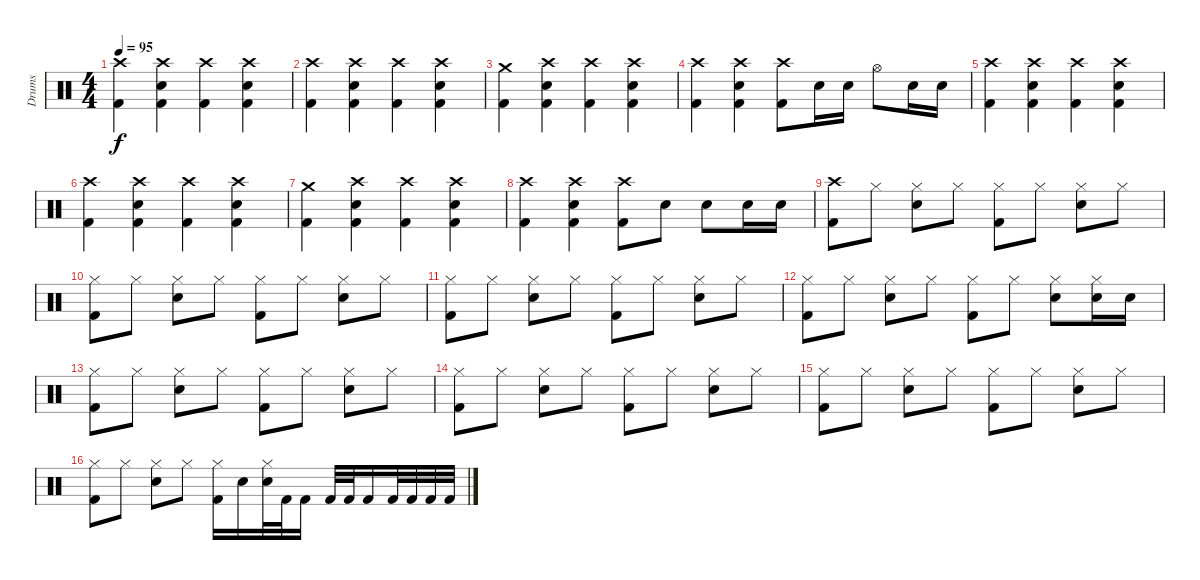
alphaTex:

\track ("Drums" "Drums") {instrument percussion}
\staff {score}
\articulation defaults
\ts (4 4)
\tempo 95
\clef neutral
\ks c
("Crash high (hit)" "Kick (hit) 2").4{dy f} ("Crash high (hit)" "Snare (hit) 2" "Kick (hit) 2").4 ("Crash high (hit)" "Kick (hit) 2").4 ("Crash high (hit)" "Snare (hit) 2" "Kick (hit) 2").4 |
("Crash high (hit)" "Kick (hit) 2").4 ("Crash high (hit)" "Snare (hit) 2" "Kick (hit) 2").4 ("Crash high (hit)" "Kick (hit) 2").4 ("Crash high (hit)" "Snare (hit) 2" "Kick (hit) 2").4 |
("Crash medium (hit)" "Kick (hit) 2").4 ("Crash high (hit)" "Snare (hit) 2" "Kick (hit) 2").4 ("Crash high (hit)" "Kick (hit) 2").4 ("Crash high (hit)" "Snare (hit) 2" "Kick (hit) 2").4 |
("Crash high (hit)" "Kick (hit) 2").4 ("Crash high (hit)" "Snare (hit) 2" "Kick (hit) 2").4 ("Crash high (hit)" "Kick (hit) 2").8 "Snare (hit) 2".16 "Snare (hit) 2".16 "Hi-Hat (open)".8 "Snare (hit) 2".16 "Snare (hit) 2".16 |
("Crash high (hit)" "Kick (hit) 2").4 ("Crash high (hit)" "Snare (hit) 2" "Kick (hit) 2").4 ("Crash high (hit)" "Kick (hit) 2").4 ("Crash high (hit)" "Snare (hit) 2" "Kick (hit) 2").4 |
("Crash high (hit)" "Kick (hit) 2").4 ("Crash high (hit)" "Snare (hit) 2" "Kick (hit) 2").4 ("Crash high (hit)" "Kick (hit) 2").4 ("Crash high (hit)" "Snare (hit) 2" "Kick (hit) 2").4 |
("Crash medium (hit)" "Kick (hit) 2").4 ("Crash high (hit)" "Snare (hit) 2" "Kick (hit) 2").4 ("Crash high (hit)" "Kick (hit) 2").4 ("Crash high (hit)" "Snare (hit) 2" "Kick (hit) 2").4 |
("Crash high (hit)" "Kick (hit) 2").4 ("Crash high (hit)" "Snare (hit) 2" "Kick (hit) 2").4 ("Crash high (hit)" "Kick (hit) 2").8 "Snare (hit) 2".8 "Snare (hit) 2".8 "Snare (hit) 2".16 "Snare (hit) 2".16 |
("Crash high (hit)" "Kick (hit) 2").8 "Hi-Hat (closed)".8 ("Hi-Hat (closed)" "Snare (hit) 2").8 "Hi-Hat (closed)".8 ("Hi-Hat (closed)" "Kick (hit) 2").8 "Hi-Hat (closed)".8 ("Hi-Hat (closed)" "Snare (hit) 2").8 "Hi-Hat (closed)".8 |
("Hi-Hat (closed)" "Kick (hit) 2").8 "Hi-Hat (closed)".8 ("Hi-Hat (closed)" "Snare (hit) 2").8 "Hi-Hat (closed)".8 ("Hi-Hat (closed)" "Kick (hit) 2").8 "Hi-Hat (closed)".8 ("Hi-Hat (closed)" "Snare (hit) 2").8 "Hi-Hat (closed)".8 |
("Hi-Hat (closed)" "Kick (hit) 2").8 "Hi-Hat (closed)".8 ("Hi-Hat (closed)" "Snare (hit) 2").8 "Hi-Hat (closed)".8 ("Hi-Hat (closed)" "Kick (hit) 2").8 "Hi-Hat (closed)".8 ("Hi-Hat (closed)" "Snare (hit) 2").8 "Hi-Hat (closed)".8 |
("Hi-Hat (closed)" "Kick (hit) 2").8 "Hi-Hat (closed)".8 ("Hi-Hat (closed)" "Snare (hit) 2").8 "Hi-Hat (closed)".8 ("Hi-Hat (closed)" "Kick (hit) 2").8 "Hi-Hat (closed)".8 ("Hi-Hat (closed)" "Snare (hit) 2").8 ("Hi-Hat (closed)" "Snare (hit) 2").16 "Snare (hit) 2".16 |
("Hi-Hat (closed)" "Kick (hit) 2").8 "Hi-Hat (closed)".8 ("Hi-Hat (closed)" "Snare (hit) 2").8 "Hi-Hat (closed)".8 ("Hi-Hat (closed)" "Kick (hit) 2").8 "Hi-Hat (closed)".8 ("Hi-Hat (closed)" "Snare (hit) 2").8 "Hi-Hat (closed)".8 |
("Hi-Hat (closed)" "Kick (hit) 2").8 "Hi-Hat (closed)".8 ("Hi-Hat (closed)" "Snare (hit) 2").8 "Hi-Hat (closed)".8 ("Hi-Hat (closed)" "Kick (hit) 2").8 "Hi-Hat (closed)".8 ("Hi-Hat (closed)" "Snare (hit) 2").8 "Hi-Hat (closed)".8 |
("Hi-Hat (closed)" "Kick (hit) 2").8 "Hi-Hat (closed)".8 ("Hi-Hat (closed)" "Snare (hit) 2").8 "Hi-Hat (closed)".8 ("Hi-Hat (closed)" "Kick (hit) 2").8 "Hi-Hat (closed)".8 ("Hi-Hat (closed)" "Snare (hit) 2").8 "Hi-Hat (closed)".8 |
("Hi-Hat (closed)" "Kick (hit) 2").8 "Hi-Hat (closed)".8 ("Hi-Hat (closed)" "Snare (hit) 2").8 "Hi-Hat (closed)".8 ("Hi-Hat (closed)" "Kick (hit) 2").16 "Snare (hit) 2".16 ("Hi-Hat (closed)" "Snare (hit) 2").32 "Kick (hit) 2".32 "Kick (hit) 2".16 "Kick (hit) 2".32 "Kick (hit) 2".32 "Kick (hit) 2".16 "Kick (hit) 2".32 "Kick (hit) 2".32 "Kick (hit) 2".32 "Kick (hit) 2".32
